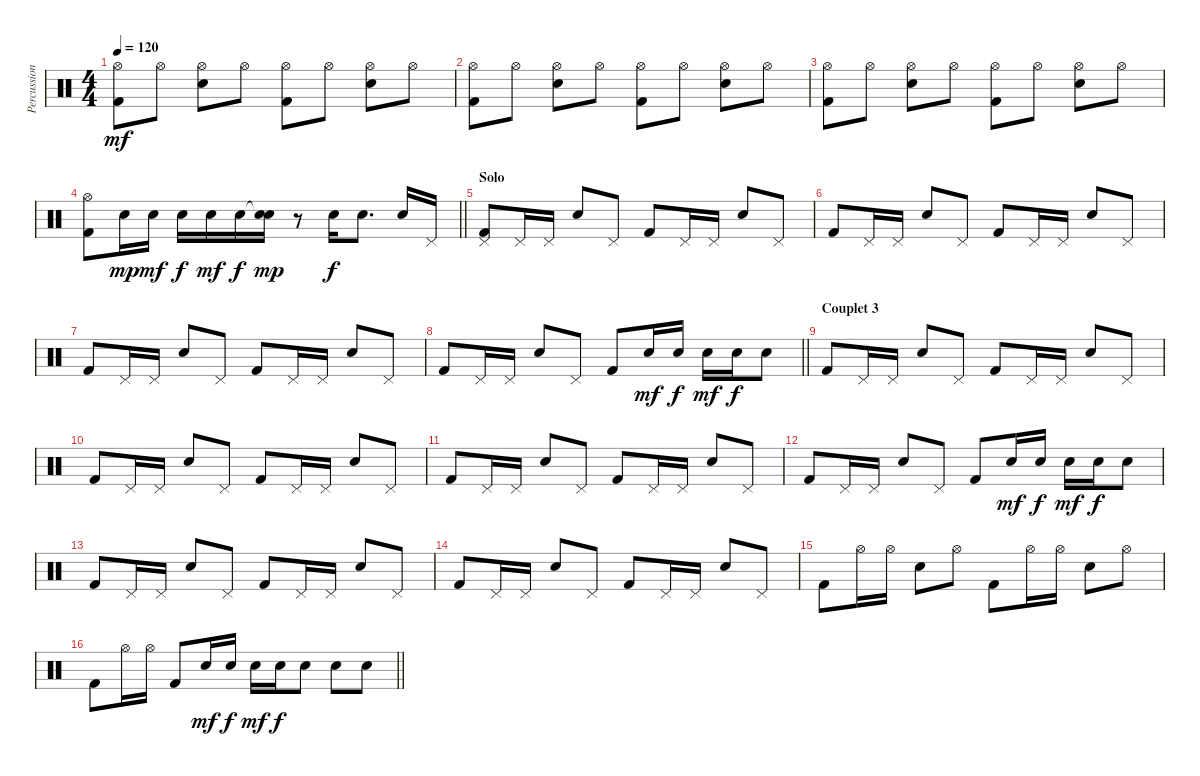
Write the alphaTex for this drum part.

\track ("Percussions" "Percussion") {instrument percussion}
\staff
\articulation defaults
\ts (4 4)
\tempo 120
\clef neutral
\ks c
("Hi-Hat (open)" "Kick (hit) 2").8{dy mf} "Hi-Hat (open)".8 ("Hi-Hat (open)" "Electric Snare (hit)").8 "Hi-Hat (open)".8 ("Hi-Hat (open)" "Kick (hit) 2").8 "Hi-Hat (open)".8 ("Hi-Hat (open)" "Electric Snare (hit)").8 "Hi-Hat (open)".8 |
("Hi-Hat (open)" "Kick (hit) 2").8 "Hi-Hat (open)".8 ("Hi-Hat (open)" "Electric Snare (hit)").8 "Hi-Hat (open)".8 ("Hi-Hat (open)" "Kick (hit) 2").8 "Hi-Hat (open)".8 ("Hi-Hat (open)" "Electric Snare (hit)").8 "Hi-Hat (open)".8 |
("Hi-Hat (open)" "Kick (hit) 2").8 "Hi-Hat (open)".8 ("Hi-Hat (open)" "Electric Snare (hit)").8 "Hi-Hat (open)".8 ("Hi-Hat (open)" "Kick (hit) 2").8 "Hi-Hat (open)".8 ("Hi-Hat (open)" "Electric Snare (hit)").8 "Hi-Hat (open)".8 |
\barLineRight lightlight
("Hi-Hat (open)" "Kick (hit) 2").8 "Electric Snare (hit)".16{dy mp} "Electric Snare (hit)".16{dy mf} "Electric Snare (hit)".16{dy f} "Electric Snare (hit)".16{dy mf} "Electric Snare (hit)".16{dy f} ("Snare (hit)"{t} "Electric Snare (hit)").16{dy mp} r.8 "Electric Snare (hit)".16{dy f} "Electric Snare (hit)".8{d} "Electric Snare (hit)".16 "Pedal Hi-Hat (hit)".16 |
\section ("" "Solo")
("Pedal Hi-Hat (hit)" "Kick (hit) 2").8 "Pedal Hi-Hat (hit)".16 "Pedal Hi-Hat (hit)".16 "Electric Snare (hit)".8 "Pedal Hi-Hat (hit)".8 "Kick (hit) 2".8 "Pedal Hi-Hat (hit)".16 "Pedal Hi-Hat (hit)".16 "Electric Snare (hit)".8 "Pedal Hi-Hat (hit)".8 |
"Kick (hit) 2".8 "Pedal Hi-Hat (hit)".16 "Pedal Hi-Hat (hit)".16 "Electric Snare (hit)".8 "Pedal Hi-Hat (hit)".8 "Kick (hit) 2".8 "Pedal Hi-Hat (hit)".16 "Pedal Hi-Hat (hit)".16 "Electric Snare (hit)".8 "Pedal Hi-Hat (hit)".8 |
"Kick (hit) 2".8 "Pedal Hi-Hat (hit)".16 "Pedal Hi-Hat (hit)".16 "Electric Snare (hit)".8 "Pedal Hi-Hat (hit)".8 "Kick (hit) 2".8 "Pedal Hi-Hat (hit)".16 "Pedal Hi-Hat (hit)".16 "Electric Snare (hit)".8 "Pedal Hi-Hat (hit)".8 |
\barLineRight lightlight "Kick (hit) 2".8 "Pedal Hi-Hat (hit)".16 "Pedal Hi-Hat (hit)".16 "Electric Snare (hit)".8 "Pedal Hi-Hat (hit)".8 "Kick (hit) 2".8 "Electric Snare (hit)".16{dy mf} "Electric Snare (hit)".16{dy f} "Electric Snare (hit)".16{dy mf} "Electric Snare (hit)".16{dy f} "Electric Snare (hit)".8
|
\section ("" "Couplet 3")
"Kick (hit) 2".8 "Pedal Hi-Hat (hit)".16 "Pedal Hi-Hat (hit)".16 "Electric Snare (hit)".8 "Pedal Hi-Hat (hit)".8 "Kick (hit) 2".8 "Pedal Hi-Hat (hit)".16 "Pedal Hi-Hat (hit)".16 "Electric Snare (hit)".8 "Pedal Hi-Hat (hit)".8 |
"Kick (hit) 2".8 "Pedal Hi-Hat (hit)".16 "Pedal Hi-Hat (hit)".16 "Electric Snare (hit)".8 "Pedal Hi-Hat (hit)".8 "Kick (hit) 2".8 "Pedal Hi-Hat (hit)".16 "Pedal Hi-Hat (hit)".16 "Electric Snare (hit)".8 "Pedal Hi-Hat (hit)".8 |
"Kick (hit) 2".8 "Pedal Hi-Hat (hit)".16 "Pedal Hi-Hat (hit)".16 "Electric Snare (hit)".8 "Pedal Hi-Hat (hit)".8 "Kick (hit) 2".8 "Pedal Hi-Hat (hit)".16 "Pedal Hi-Hat (hit)".16 "Electric Snare (hit)".8 "Pedal Hi-Hat (hit)".8 |
"Kick (hit) 2".8 "Pedal Hi-Hat (hit)".16 "Pedal Hi-Hat (hit)".16 "Electric Snare (hit)".8 "Pedal Hi-Hat (hit)".8 "Kick (hit) 2".8 "Electric Snare (hit)".16{dy mf} "Electric Snare (hit)".16{dy f} "Electric Snare (hit)".16{dy mf} "Electric Snare (hit)".16{dy f} "Electric Snare (hit)".8 |
"Kick (hit) 2".8 "Pedal Hi-Hat (hit)".16 "Pedal Hi-Hat (hit)".16 "Electric Snare (hit)".8 "Pedal Hi-Hat (hit)".8 "Kick (hit) 2".8 "Pedal Hi-Hat (hit)".16 "Pedal Hi-Hat (hit)".16 "Electric Snare (hit)".8 "Pedal Hi-Hat (hit)".8 |
"Kick (hit) 2".8 "Pedal Hi-Hat (hit)".16 "Pedal Hi-Hat (hit)".16 "Electric Snare (hit)".8 "Pedal Hi-Hat (hit)".8 "Kick (hit) 2".8 "Pedal Hi-Hat (hit)".16 "Pedal Hi-Hat (hit)".16 "Electric Snare (hit)".8 "Pedal Hi-Hat (hit)".8 |
"Kick (hit) 2".8 "Hi-Hat (open)".16 "Hi-Hat (open)".16 "Electric Snare (hit)".8 "Hi-Hat (open)".8 "Kick (hit) 2".8 "Hi-Hat (open)".16 "Hi-Hat (open)".16 "Electric Snare (hit)".8 "Hi-Hat (open)".8 |
\barLineRight lightlight "Kick (hit) 2".8 "Hi-Hat (open)".16 "Hi-Hat (open)".16 "Kick (hit) 2".8 "Electric Snare (hit)".16{dy mf} "Electric Snare (hit)".16{dy f} "Electric Snare (hit)".16{dy mf} "Electric Snare (hit)".16{dy f} "Electric Snare (hit)".8 "Electric Snare (hit)".8 "Electric Snare (hit)".8
